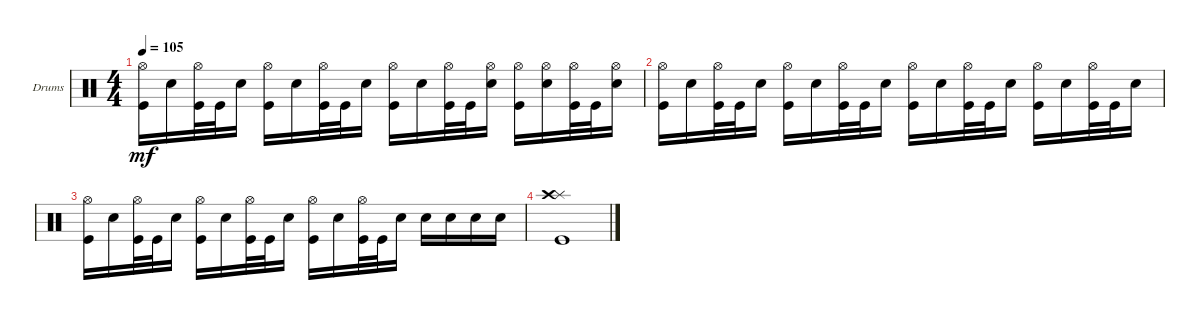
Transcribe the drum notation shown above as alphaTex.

\defaultSystemsLayout 4
\bracketExtendMode groupsimilarinstruments
\firstSystemTrackNameOrientation horizontal
\otherSystemsTrackNameOrientation horizontal
\track ("Hell On da Drums" "Drums") {instrument percussion}
\staff {score}
\articulation defaults
\ts (4 4)
\tempo 105
\clef neutral
\ks c
("Hi-Hat (open)" "Kick (hit)").16{dy mf} "Snare (hit) 2".16 ("Kick (hit)" "Hi-Hat (open)").32 "Kick (hit)".32 "Snare (hit) 2".16 ("Kick (hit)" "Hi-Hat (open)").16 "Snare (hit) 2".16 ("Kick (hit)" "Hi-Hat (open)").32 "Kick (hit)".32 "Snare (hit) 2".16 ("Kick (hit)" "Hi-Hat (open)").16 "Snare (hit) 2".16 ("Kick (hit)" "Hi-Hat (open)").32 "Kick (hit)".32 ("Snare (hit) 2" "Hi-Hat (open)").16 ("Kick (hit)" "Hi-Hat (open)").16 ("Snare (hit) 2" "Hi-Hat (open)").16 ("Kick (hit)" "Hi-Hat (open)").32 "Kick (hit)".32 ("Snare (hit) 2" "Hi-Hat (open)").16 |
("Kick (hit)" "Hi-Hat (open)").16 "Snare (hit) 2".16 ("Kick (hit)" "Hi-Hat (open)").32 "Kick (hit)".32 "Snare (hit) 2".16 ("Kick (hit)" "Hi-Hat (open)").16 "Snare (hit) 2".16 ("Kick (hit)" "Hi-Hat (open)").32 "Kick (hit)".32 "Snare (hit) 2".16 ("Kick (hit)" "Hi-Hat (open)").16 "Snare (hit) 2".16 ("Kick (hit)" "Hi-Hat (open)").32 "Kick (hit)".32 "Snare (hit) 2".16 ("Kick (hit)" "Hi-Hat (open)").16 "Snare (hit) 2".16 ("Kick (hit)" "Hi-Hat (open)").32 "Kick (hit)".32 "Snare (hit) 2".16 |
("Kick (hit)" "Hi-Hat (open)").16 "Snare (hit) 2".16 ("Kick (hit)" "Hi-Hat (open)").32 "Kick (hit)".32 "Snare (hit) 2".16 ("Kick (hit)" "Hi-Hat (open)").16 "Snare (hit) 2".16 ("Kick (hit)" "Hi-Hat (open)").32 "Kick (hit)".32 "Snare (hit) 2".16 ("Kick (hit)" "Hi-Hat (open)").16 "Snare (hit) 2".16 ("Kick (hit)" "Hi-Hat (open)").32 "Kick (hit)".32 "Snare (hit) 2".16 "Snare (hit) 2".16 "Snare (hit) 2".16 "Snare (hit) 2".16 "Snare (hit) 2".16 |
("Splash (hit)" "Crash high (hit)" "Kick (hit)").1
